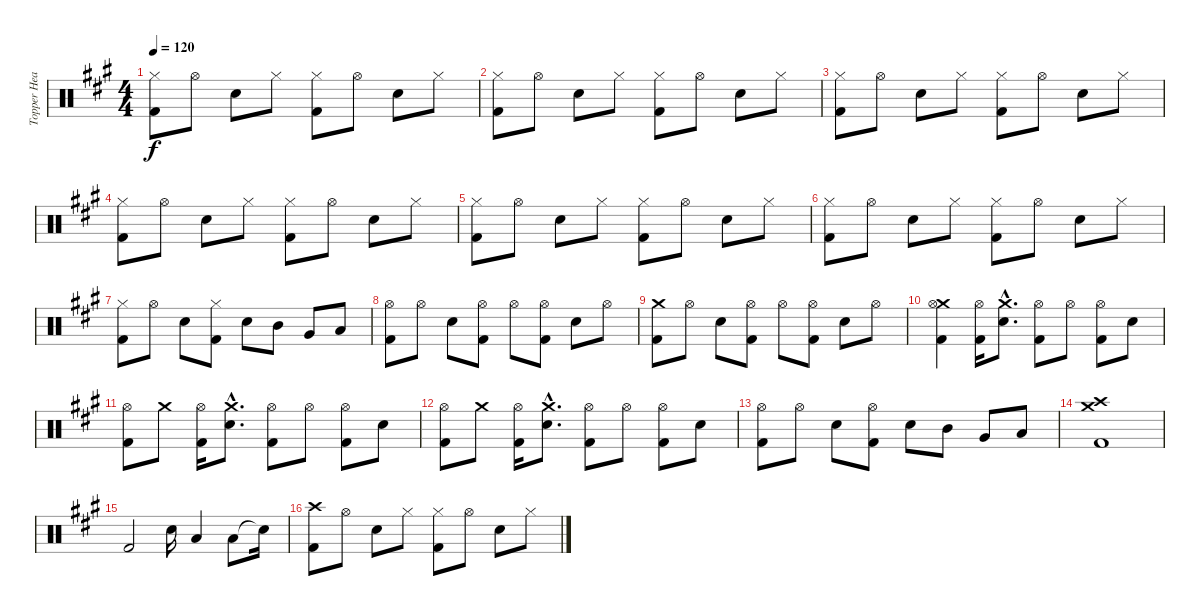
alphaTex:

\track ("Topper Headon (Drum)" "Topper Hea") {instrument percussion}
\staff {score}
\articulation defaults
\ts (4 4)
\tempo 120
\clef neutral
\ks a
("Hi-Hat (closed)" "Kick (hit) 2").8{dy f} "Hi-Hat (open)".8 "Electric Snare (hit)".8 "Hi-Hat (closed)".8 ("Hi-Hat (closed)" "Kick (hit) 2").8 "Hi-Hat (open)".8 "Electric Snare (hit)".8 "Hi-Hat (closed)".8 |
("Hi-Hat (closed)" "Kick (hit) 2").8 "Hi-Hat (open)".8 "Electric Snare (hit)".8 "Hi-Hat (closed)".8 ("Hi-Hat (closed)" "Kick (hit) 2").8 "Hi-Hat (open)".8 "Electric Snare (hit)".8 "Hi-Hat (closed)".8 |
("Hi-Hat (closed)" "Kick (hit) 2").8 "Hi-Hat (open)".8 "Electric Snare (hit)".8 "Hi-Hat (closed)".8 ("Hi-Hat (closed)" "Kick (hit) 2").8 "Hi-Hat (open)".8 "Electric Snare (hit)".8 "Hi-Hat (closed)".8 |
("Hi-Hat (closed)" "Kick (hit) 2").8 "Hi-Hat (open)".8 "Electric Snare (hit)".8 "Hi-Hat (closed)".8 ("Hi-Hat (closed)" "Kick (hit) 2").8 "Hi-Hat (open)".8 "Electric Snare (hit)".8 "Hi-Hat (closed)".8 |
("Hi-Hat (closed)" "Kick (hit) 2").8 "Hi-Hat (open)".8 "Electric Snare (hit)".8 "Hi-Hat (closed)".8 ("Hi-Hat (closed)" "Kick (hit) 2").8 "Hi-Hat (open)".8 "Electric Snare (hit)".8 "Hi-Hat (closed)".8 |
("Hi-Hat (closed)" "Kick (hit) 2").8 "Hi-Hat (open)".8 "Electric Snare (hit)".8 "Hi-Hat (closed)".8 ("Hi-Hat (closed)" "Kick (hit) 2").8 "Hi-Hat (open)".8 "Electric Snare (hit)".8 "Hi-Hat (closed)".8 |
("Hi-Hat (closed)" "Kick (hit) 2").8 "Hi-Hat (open)".8 "Electric Snare (hit)".8 ("Hi-Hat (closed)" "Kick (hit) 2").8 "Electric Snare (hit)".8 "Mid Tom (hit)".8 "Very Low Tom (hit)".8 "Low Floor Tom (hit)".8 |
("Hi-Hat (open)" "Kick (hit) 2").8 "Hi-Hat (open)".8 "Electric Snare (hit)".8 ("Hi-Hat (open)" "Kick (hit) 2").8 "Hi-Hat (open)".8 ("Hi-Hat (open)" "Kick (hit) 2").8 "Electric Snare (hit)".8 "Hi-Hat (open)".8 |
("Crash medium (hit)" "Kick (hit) 2").8 "Hi-Hat (open)".8 "Electric Snare (hit)".8 ("Hi-Hat (open)" "Kick (hit) 2").8 "Hi-Hat (open)".8 ("Hi-Hat (open)" "Kick (hit) 2").8 "Electric Snare (hit)".8 "Hi-Hat (open)".8 |
("Crash medium (hit)" "Hi-Hat (open)" "Kick (hit) 2").4 ("Hi-Hat (open)" "Kick (hit) 2").16 ("Crash medium (hit)"{hac} "Electric Snare (hit)"{hac}).8{d} ("Hi-Hat (open)" "Kick (hit) 2").8 "Hi-Hat (open)".8 ("Hi-Hat (open)" "Kick (hit) 2").8 "Electric Snare (hit)".8 |
("Hi-Hat (open)" "Kick (hit) 2").8 "Crash medium (hit)".8 ("Hi-Hat (open)" "Kick (hit) 2").16 ("Crash medium (hit)"{hac} "Electric Snare (hit)"{hac}).8{d} ("Hi-Hat (open)" "Kick (hit) 2").8 "Hi-Hat (open)".8 ("Hi-Hat (open)" "Kick (hit) 2").8 "Electric Snare (hit)".8 |
("Hi-Hat (open)" "Kick (hit) 2").8 "Crash medium (hit)".8 ("Hi-Hat (open)" "Kick (hit) 2").16 ("Crash medium (hit)"{hac} "Electric Snare (hit)"{hac}).8{d} ("Hi-Hat (open)" "Kick (hit) 2").8 "Hi-Hat (open)".8 ("Hi-Hat (open)" "Kick (hit) 2").8 "Electric Snare (hit)".8 |
("Hi-Hat (open)" "Kick (hit) 2").8 "Hi-Hat (open)".8 "Electric Snare (hit)".8 ("Hi-Hat (open)" "Kick (hit) 2").8 "Electric Snare (hit)".8 "Mid Tom (hit)".8 "Very Low Tom (hit)".8 "Low Floor Tom (hit)".8 |
("Crash medium (hit)" "Crash high (hit)" "Kick (hit) 2").1 |
"Kick (hit) 2".2 "Electric Snare (hit)".16 "Low Tom (hit)".4 "Low Floor Tom (hit)".8 "Snare (hit)"{t}.16 |
("Crash high (hit)" "Kick (hit) 2").8 "Hi-Hat (open)".8 "Electric Snare (hit)".8 "Hi-Hat (closed)".8 ("Hi-Hat (closed)" "Kick (hit) 2").8 "Hi-Hat (open)".8 "Electric Snare (hit)".8 "Hi-Hat (closed)".8
